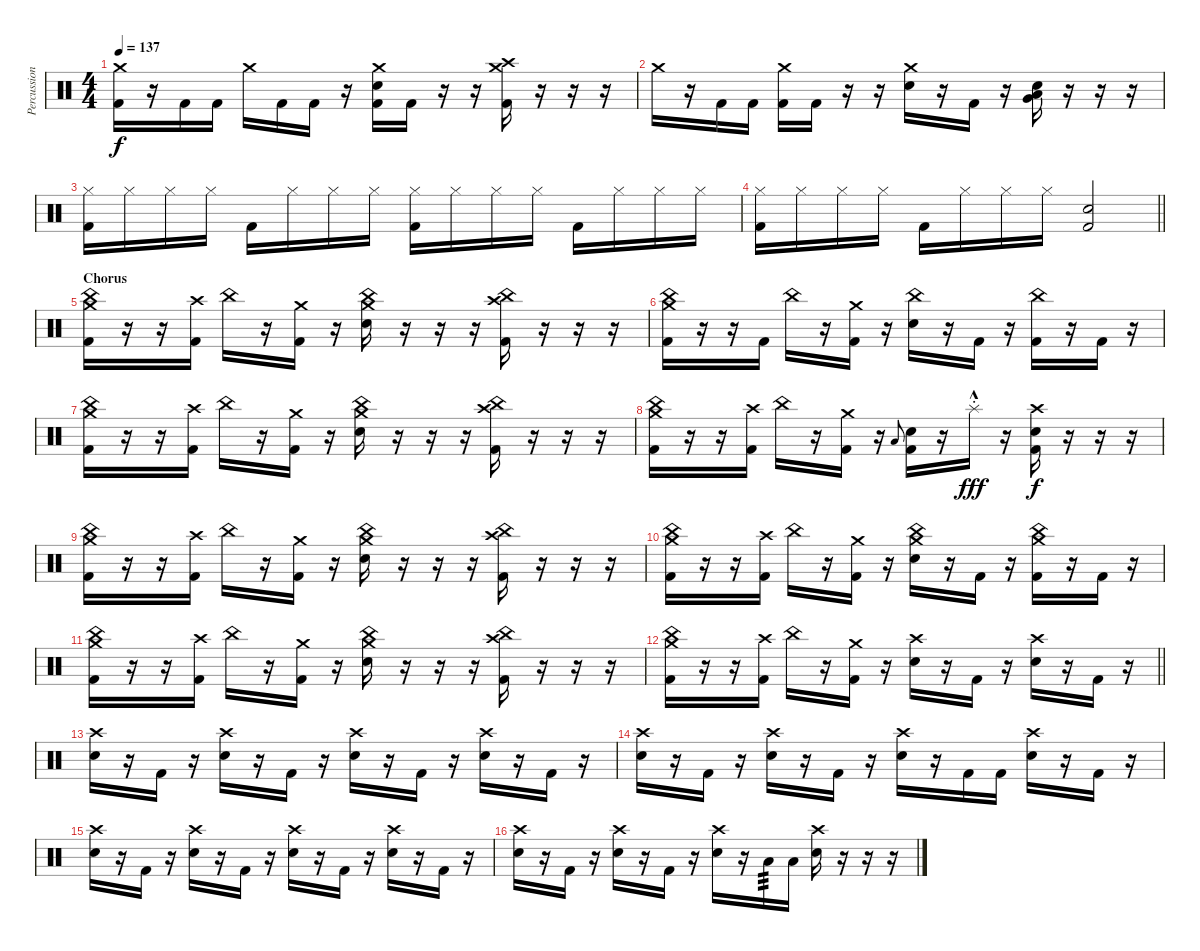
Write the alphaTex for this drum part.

\track ("Percussion" "Percussion") {instrument percussion}
\staff {score}
\articulation defaults
\ts (4 4)
\tempo 137
\clef neutral
\ks c
("Crash medium (hit)" "Kick (hit) 2").16{dy f} r.16 "Kick (hit) 2".16 "Kick (hit) 2".16 "Crash medium (hit)".16 "Kick (hit) 2".16 "Kick (hit) 2".16 r.16 ("Crash medium (hit)" "Electric Snare (hit)" "Kick (hit) 2").16 "Kick (hit) 2".16 r.16 r.16 ("Crash medium (hit)" "Crash high (hit)" "Kick (hit) 2").16 r.16 r.16 r.16 |
"Crash medium (hit)".16 r.16 "Kick (hit) 2".16 "Kick (hit) 2".16 ("Crash medium (hit)" "Kick (hit) 2").16 "Kick (hit) 2".16 r.16 r.16 ("Crash medium (hit)" "Electric Snare (hit)").16 r.16 "Kick (hit) 2".16 r.16 ("Electric Snare (hit)" "Very Low Tom (hit)" "Low Floor Tom (hit)").16 r.16 r.16 r.16 |
("Hi-Hat (closed)" "Kick (hit) 2").16 "Hi-Hat (closed)".16 "Hi-Hat (closed)".16 "Hi-Hat (closed)".16 "Kick (hit) 2".16 "Hi-Hat (closed)".16 "Hi-Hat (closed)".16 "Hi-Hat (closed)".16 ("Hi-Hat (closed)" "Kick (hit) 2").16 "Hi-Hat (closed)".16 "Hi-Hat (closed)".16 "Hi-Hat (closed)".16 "Kick (hit) 2".16 "Hi-Hat (closed)".16 "Hi-Hat (closed)".16 "Hi-Hat (closed)".16 |
\barLineRight lightlight
("Hi-Hat (closed)" "Kick (hit) 2").16 "Hi-Hat (closed)".16 "Hi-Hat (closed)".16 "Hi-Hat (closed)".16 "Kick (hit) 2".16 "Hi-Hat (closed)".16 "Hi-Hat (closed)".16 "Hi-Hat (closed)".16 ("Electric Snare (hit)" "Kick (hit) 2").2 |
\section ("" "Chorus")
("China (hit)" "Crash medium (hit)" "Kick (hit) 2").16 r.16 r.16 ("Crash high (hit)" "Kick (hit) 2").16 "China (hit)".16 r.16 ("Crash medium (hit)" "Kick (hit) 2").16 r.16 ("China (hit)" "Crash medium (hit)" "Electric Snare (hit)").16 r.16 r.16 r.16 ("China (hit)" "Crash high (hit)" "Kick (hit) 2").16 r.16 r.16 r.16 |
("China (hit)" "Crash medium (hit)" "Kick (hit) 2").16 r.16 r.16 "Kick (hit) 2".16 "China (hit)".16 r.16 ("Crash medium (hit)" "Kick (hit) 2").16 r.16 ("China (hit)" "Electric Snare (hit)").16 r.16 "Kick (hit) 2".16 r.16 ("China (hit)" "Kick (hit) 2").16 r.16 "Kick (hit) 2".16 r.16 |
("China (hit)" "Crash medium (hit)" "Kick (hit) 2").16 r.16 r.16 ("Crash high (hit)" "Kick (hit) 2").16 "China (hit)".16 r.16 ("Crash medium (hit)" "Kick (hit) 2").16 r.16 ("China (hit)" "Crash medium (hit)" "Electric Snare (hit)").16 r.16 r.16 r.16 ("China (hit)" "Crash high (hit)" "Kick (hit) 2").16 r.16 r.16 r.16 |
("China (hit)" "Crash medium (hit)" "Kick (hit) 2").16 r.16 r.16 ("Crash high (hit)" "Kick (hit) 2").16 "China (hit)".16 r.16 ("Crash medium (hit)" "Kick (hit) 2").16 r.16 "Low Floor Tom (hit)".8{gr onbeat} ("Electric Snare (hit)" "Kick (hit) 2").16 r.16 "Splash (hit)"{hac st}.16{dy fff} r.16 ("Crash high (hit)" "Electric Snare (hit)" "Kick (hit) 2").16{dy f} r.16 r.16 r.16 |
("China (hit)" "Crash medium (hit)" "Kick (hit) 2").16 r.16 r.16 ("Crash high (hit)" "Kick (hit) 2").16 "China (hit)".16 r.16 ("Crash medium (hit)" "Kick (hit) 2").16 r.16 ("China (hit)" "Crash medium (hit)" "Electric Snare (hit)").16 r.16 r.16 r.16 ("China (hit)" "Crash high (hit)" "Kick (hit) 2").16 r.16 r.16 r.16 |
("China (hit)" "Crash medium (hit)" "Kick (hit) 2").16 r.16 r.16 ("Crash high (hit)" "Kick (hit) 2").16 "China (hit)".16 r.16 ("Crash medium (hit)" "Kick (hit) 2").16 r.16 ("China (hit)" "Crash medium (hit)" "Electric Snare (hit)").16 r.16 "Kick (hit) 2".16 r.16 ("China (hit)" "Crash medium (hit)" "Kick (hit) 2").16 r.16 "Kick (hit) 2".16 r.16 |
("China (hit)" "Crash medium (hit)" "Kick (hit) 2").16 r.16 r.16 ("Crash high (hit)" "Kick (hit) 2").16 "China (hit)".16 r.16 ("Crash medium (hit)" "Kick (hit) 2").16 r.16 ("China (hit)" "Crash medium (hit)" "Electric Snare (hit)").16 r.16 r.16 r.16 ("China (hit)" "Crash high (hit)" "Kick (hit) 2").16 r.16 r.16 r.16 |
\barLineRight lightlight
("China (hit)" "Crash medium (hit)" "Kick (hit) 2").16 r.16 r.16 ("Crash high (hit)" "Kick (hit) 2").16 "China (hit)".16 r.16 ("Crash medium (hit)" "Kick (hit) 2").16 r.16 ("Crash high (hit)" "Electric Snare (hit)").16 r.16 "Kick (hit) 2".16 r.16 ("Crash high (hit)" "Electric Snare (hit)").16 r.16 "Kick (hit) 2".16 r.16 |
("Crash high (hit)" "Electric Snare (hit)").16 r.16 "Kick (hit) 2".16 r.16 ("Crash high (hit)" "Electric Snare (hit)").16 r.16 "Kick (hit) 2".16 r.16 ("Crash high (hit)" "Electric Snare (hit)").16 r.16 "Kick (hit) 2".16 r.16 ("Crash high (hit)" "Electric Snare (hit)").16 r.16 "Kick (hit) 2".16 r.16 |
("Crash high (hit)" "Electric Snare (hit)").16 r.16 "Kick (hit) 2".16 r.16 ("Crash high (hit)" "Electric Snare (hit)").16 r.16 "Kick (hit) 2".16 r.16 ("Crash high (hit)" "Electric Snare (hit)").16 r.16 "Kick (hit) 2".16 "Kick (hit) 2".16 ("Crash high (hit)" "Electric Snare (hit)").16 r.16 "Kick (hit) 2".16 r.16 |
("Crash high (hit)" "Electric Snare (hit)").16 r.16 "Kick (hit) 2".16 r.16 ("Crash high (hit)" "Electric Snare (hit)").16 r.16 "Kick (hit) 2".16 r.16 ("Crash high (hit)" "Electric Snare (hit)").16 r.16 "Kick (hit) 2".16 r.16 ("Crash high (hit)" "Electric Snare (hit)").16 r.16 "Kick (hit) 2".16 r.16 |
("Crash high (hit)" "Electric Snare (hit)").16 r.16 "Kick (hit) 2".16 r.16 ("Crash high (hit)" "Electric Snare (hit)").16 r.16 "Kick (hit) 2".16 r.16 ("Crash high (hit)" "Electric Snare (hit)").16 r.16 "Low Floor Tom (hit)".16{tp 3} "Low Floor Tom (hit)".16 ("Crash high (hit)" "Electric Snare (hit)").16 r.16 r.16 r.16
